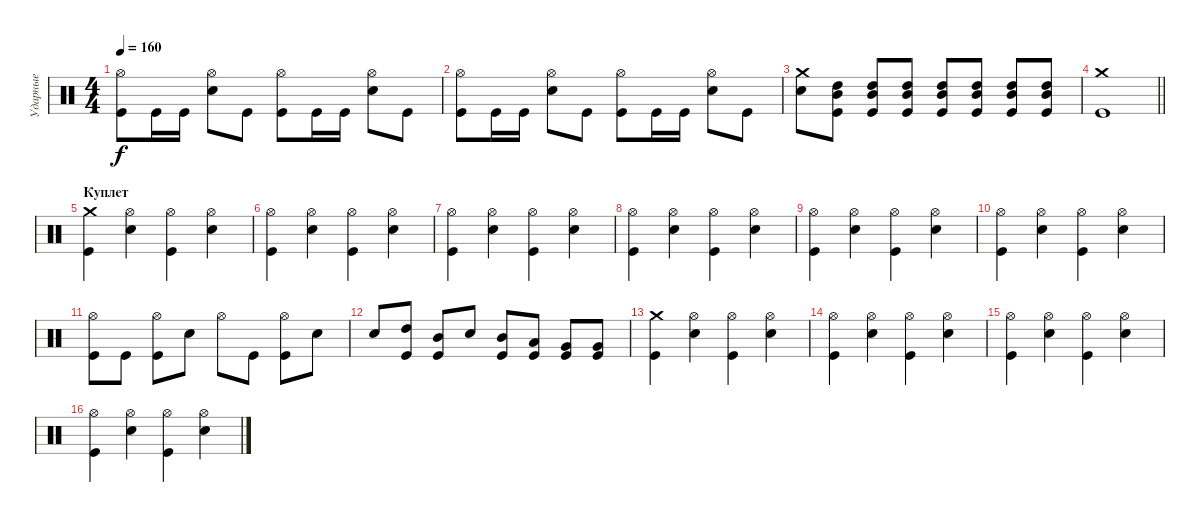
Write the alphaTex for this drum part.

\track ("Ударные" "Ударные") {instrument percussion}
\staff {score}
\articulation defaults
\ts (4 4)
\tempo 160
\clef neutral
\ks c
("Kick (hit)" "Hi-Hat (open)").8{dy f} "Kick (hit)".16 "Kick (hit)".16 ("Snare (hit) 2" "Hi-Hat (open)").8 "Kick (hit)".8 ("Kick (hit)" "Hi-Hat (open)").8 "Kick (hit)".16 "Kick (hit)".16 ("Snare (hit) 2" "Hi-Hat (open)").8 "Kick (hit)".8 |
("Kick (hit)" "Hi-Hat (open)").8 "Kick (hit)".16 "Kick (hit)".16 ("Snare (hit) 2" "Hi-Hat (open)").8 "Kick (hit)".8 ("Kick (hit)" "Hi-Hat (open)").8 "Kick (hit)".16 "Kick (hit)".16 ("Snare (hit) 2" "Hi-Hat (open)").8 "Kick (hit)".8 |
("Snare (hit) 2" "Crash medium (hit)").8 ("Kick (hit)" "Mid Tom (hit)" "High Tom (hit)").8{bd 60} ("Kick (hit)" "Mid Tom (hit)" "High Tom (hit)").8{bd 60} ("Kick (hit)" "Mid Tom (hit)" "High Tom (hit)").8{bd 60} ("Kick (hit)" "Mid Tom (hit)" "High Tom (hit)").8{bd 60} ("Kick (hit)" "Mid Tom (hit)" "High Tom (hit)").8{bd 60} ("Kick (hit)" "Mid Tom (hit)" "High Tom (hit)").8{bd 60} ("Kick (hit)" "Mid Tom (hit)" "High Tom (hit)").8{bd 60} |
\barLineRight lightlight
("Kick (hit)" "Crash medium (hit)").1 |
\section ("" "Куплет")
("Kick (hit)" "Crash medium (hit)").4 ("Snare (hit) 2" "Hi-Hat (open)").4 ("Kick (hit)" "Hi-Hat (open)").4 ("Snare (hit) 2" "Hi-Hat (open)").4 |
("Kick (hit)" "Hi-Hat (open)").4 ("Snare (hit) 2" "Hi-Hat (open)").4 ("Kick (hit)" "Hi-Hat (open)").4 ("Snare (hit) 2" "Hi-Hat (open)").4 |
("Kick (hit)" "Hi-Hat (open)").4 ("Snare (hit) 2" "Hi-Hat (open)").4 ("Kick (hit)" "Hi-Hat (open)").4 ("Snare (hit) 2" "Hi-Hat (open)").4 |
("Kick (hit)" "Hi-Hat (open)").4 ("Snare (hit) 2" "Hi-Hat (open)").4 ("Kick (hit)" "Hi-Hat (open)").4 ("Snare (hit) 2" "Hi-Hat (open)").4 |
("Kick (hit)" "Hi-Hat (open)").4 ("Snare (hit) 2" "Hi-Hat (open)").4 ("Kick (hit)" "Hi-Hat (open)").4 ("Snare (hit) 2" "Hi-Hat (open)").4 |
("Kick (hit)" "Hi-Hat (open)").4 ("Snare (hit) 2" "Hi-Hat (open)").4 ("Kick (hit)" "Hi-Hat (open)").4 ("Snare (hit) 2" "Hi-Hat (open)").4 |
("Kick (hit)" "Hi-Hat (open)").8 "Kick (hit)".8 ("Kick (hit)" "Hi-Hat (open)").8 "Snare (hit) 2".8 "Hi-Hat (open)".8 "Kick (hit)".8 ("Kick (hit)" "Hi-Hat (open)").8 "Snare (hit) 2".8 |
"Snare (hit) 2".8 ("Kick (hit)" "High Tom (hit)").8 ("Kick (hit)" "Mid Tom (hit)").8 "Snare (hit) 2".8 ("Kick (hit)" "Mid Tom (hit)").8 ("Kick (hit)" "Low Tom (hit)").8 ("Kick (hit)" "Very Low Tom (hit)").8 ("Kick (hit)" "Very Low Tom (hit)").8 |
("Kick (hit)" "Crash medium (hit)").4 ("Snare (hit) 2" "Hi-Hat (open)").4 ("Kick (hit)" "Hi-Hat (open)").4 ("Snare (hit) 2" "Hi-Hat (open)").4 |
("Kick (hit)" "Hi-Hat (open)").4 ("Snare (hit) 2" "Hi-Hat (open)").4 ("Kick (hit)" "Hi-Hat (open)").4 ("Snare (hit) 2" "Hi-Hat (open)").4 |
("Kick (hit)" "Hi-Hat (open)").4 ("Snare (hit) 2" "Hi-Hat (open)").4 ("Kick (hit)" "Hi-Hat (open)").4 ("Snare (hit) 2" "Hi-Hat (open)").4 |
("Kick (hit)" "Hi-Hat (open)").4 ("Snare (hit) 2" "Hi-Hat (open)").4 ("Kick (hit)" "Hi-Hat (open)").4 ("Snare (hit) 2" "Hi-Hat (open)").4
